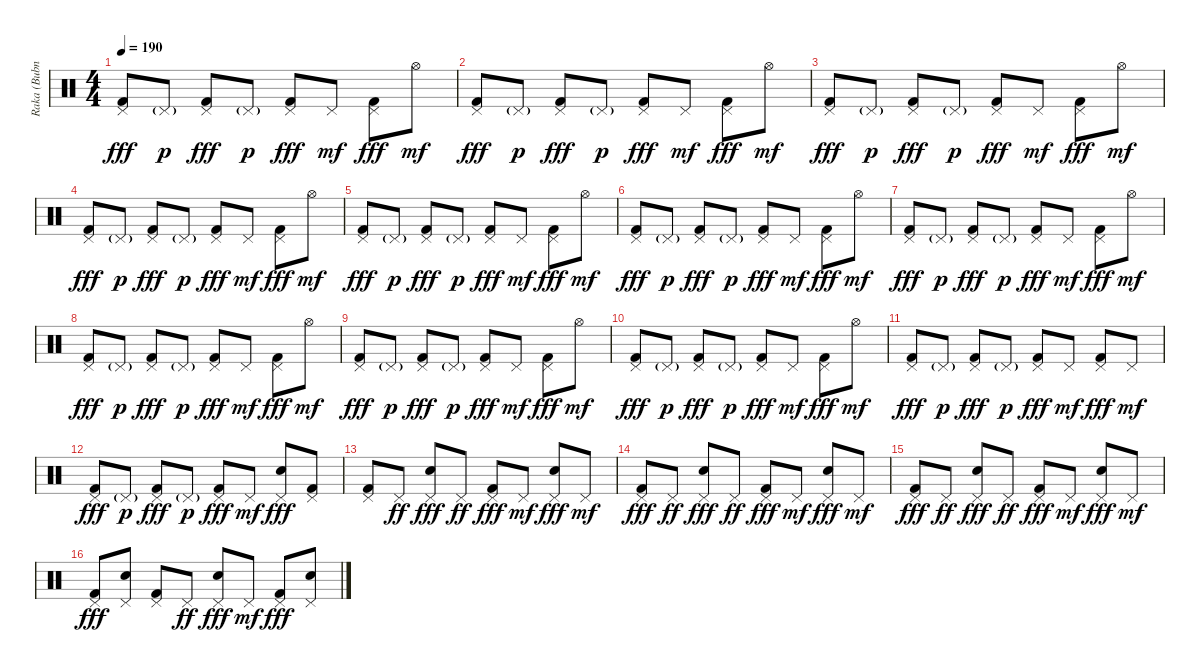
\track ("Raka (Bubnjevi)" "Raka (Bubn") {instrument percussion}
\staff {score}
\articulation defaults
\ts (4 4)
\tempo 190
\clef neutral
\ks c
("Pedal Hi-Hat (hit)" "Kick (hit) 2").8{dy fff} "Pedal Hi-Hat (hit)"{g}.8{dy p} ("Pedal Hi-Hat (hit)" "Kick (hit) 2").8{dy fff} "Pedal Hi-Hat (hit)"{g}.8{dy p} ("Pedal Hi-Hat (hit)" "Kick (hit) 2").8{dy fff} "Pedal Hi-Hat (hit)".8{dy mf} ("Pedal Hi-Hat (hit)" "Kick (hit) 2").8{dy fff} "Hi-Hat (open)".8{dy mf} |
("Pedal Hi-Hat (hit)" "Kick (hit) 2").8{dy fff} "Pedal Hi-Hat (hit)"{g}.8{dy p} ("Pedal Hi-Hat (hit)" "Kick (hit) 2").8{dy fff} "Pedal Hi-Hat (hit)"{g}.8{dy p} ("Pedal Hi-Hat (hit)" "Kick (hit) 2").8{dy fff} "Pedal Hi-Hat (hit)".8{dy mf} ("Pedal Hi-Hat (hit)" "Kick (hit) 2").8{dy fff} "Hi-Hat (open)".8{dy mf} |
("Pedal Hi-Hat (hit)" "Kick (hit) 2").8{dy fff} "Pedal Hi-Hat (hit)"{g}.8{dy p} ("Pedal Hi-Hat (hit)" "Kick (hit) 2").8{dy fff} "Pedal Hi-Hat (hit)"{g}.8{dy p} ("Pedal Hi-Hat (hit)" "Kick (hit) 2").8{dy fff} "Pedal Hi-Hat (hit)".8{dy mf} ("Pedal Hi-Hat (hit)" "Kick (hit) 2").8{dy fff} "Hi-Hat (open)".8{dy mf} |
("Pedal Hi-Hat (hit)" "Kick (hit) 2").8{dy fff} "Pedal Hi-Hat (hit)"{g}.8{dy p} ("Pedal Hi-Hat (hit)" "Kick (hit) 2").8{dy fff} "Pedal Hi-Hat (hit)"{g}.8{dy p} ("Pedal Hi-Hat (hit)" "Kick (hit) 2").8{dy fff} "Pedal Hi-Hat (hit)".8{dy mf} ("Pedal Hi-Hat (hit)" "Kick (hit) 2").8{dy fff} "Hi-Hat (open)".8{dy mf} |
("Pedal Hi-Hat (hit)" "Kick (hit) 2").8{dy fff} "Pedal Hi-Hat (hit)"{g}.8{dy p} ("Pedal Hi-Hat (hit)" "Kick (hit) 2").8{dy fff} "Pedal Hi-Hat (hit)"{g}.8{dy p} ("Pedal Hi-Hat (hit)" "Kick (hit) 2").8{dy fff} "Pedal Hi-Hat (hit)".8{dy mf} ("Pedal Hi-Hat (hit)" "Kick (hit) 2").8{dy fff} "Hi-Hat (open)".8{dy mf} |
("Pedal Hi-Hat (hit)" "Kick (hit) 2").8{dy fff} "Pedal Hi-Hat (hit)"{g}.8{dy p} ("Pedal Hi-Hat (hit)" "Kick (hit) 2").8{dy fff} "Pedal Hi-Hat (hit)"{g}.8{dy p} ("Pedal Hi-Hat (hit)" "Kick (hit) 2").8{dy fff} "Pedal Hi-Hat (hit)".8{dy mf} ("Pedal Hi-Hat (hit)" "Kick (hit) 2").8{dy fff} "Hi-Hat (open)".8{dy mf} |
("Pedal Hi-Hat (hit)" "Kick (hit) 2").8{dy fff} "Pedal Hi-Hat (hit)"{g}.8{dy p} ("Pedal Hi-Hat (hit)" "Kick (hit) 2").8{dy fff} "Pedal Hi-Hat (hit)"{g}.8{dy p} ("Pedal Hi-Hat (hit)" "Kick (hit) 2").8{dy fff} "Pedal Hi-Hat (hit)".8{dy mf} ("Pedal Hi-Hat (hit)" "Kick (hit) 2").8{dy fff} "Hi-Hat (open)".8{dy mf} |
("Pedal Hi-Hat (hit)" "Kick (hit) 2").8{dy fff} "Pedal Hi-Hat (hit)"{g}.8{dy p} ("Pedal Hi-Hat (hit)" "Kick (hit) 2").8{dy fff} "Pedal Hi-Hat (hit)"{g}.8{dy p} ("Pedal Hi-Hat (hit)" "Kick (hit) 2").8{dy fff} "Pedal Hi-Hat (hit)".8{dy mf} ("Pedal Hi-Hat (hit)" "Kick (hit) 2").8{dy fff} "Hi-Hat (open)".8{dy mf} |
("Pedal Hi-Hat (hit)" "Kick (hit) 2").8{dy fff} "Pedal Hi-Hat (hit)"{g}.8{dy p} ("Pedal Hi-Hat (hit)" "Kick (hit) 2").8{dy fff} "Pedal Hi-Hat (hit)"{g}.8{dy p} ("Pedal Hi-Hat (hit)" "Kick (hit) 2").8{dy fff} "Pedal Hi-Hat (hit)".8{dy mf} ("Pedal Hi-Hat (hit)" "Kick (hit) 2").8{dy fff} "Hi-Hat (open)".8{dy mf} |
("Pedal Hi-Hat (hit)" "Kick (hit) 2").8{dy fff} "Pedal Hi-Hat (hit)"{g}.8{dy p} ("Pedal Hi-Hat (hit)" "Kick (hit) 2").8{dy fff} "Pedal Hi-Hat (hit)"{g}.8{dy p} ("Pedal Hi-Hat (hit)" "Kick (hit) 2").8{dy fff} "Pedal Hi-Hat (hit)".8{dy mf} ("Pedal Hi-Hat (hit)" "Kick (hit) 2").8{dy fff} "Hi-Hat (open)".8{dy mf} |
("Pedal Hi-Hat (hit)" "Kick (hit) 2").8{dy fff} "Pedal Hi-Hat (hit)"{g}.8{dy p} ("Pedal Hi-Hat (hit)" "Kick (hit) 2").8{dy fff} "Pedal Hi-Hat (hit)"{g}.8{dy p} ("Pedal Hi-Hat (hit)" "Kick (hit) 2").8{dy fff} "Pedal Hi-Hat (hit)".8{dy mf} ("Pedal Hi-Hat (hit)" "Kick (hit) 2").8{dy fff} "Pedal Hi-Hat (hit)".8{dy mf} |
("Pedal Hi-Hat (hit)" "Kick (hit) 2").8{dy fff} "Pedal Hi-Hat (hit)"{g}.8{dy p} ("Pedal Hi-Hat (hit)" "Kick (hit) 2").8{dy fff} "Pedal Hi-Hat (hit)"{g}.8{dy p} ("Pedal Hi-Hat (hit)" "Kick (hit) 2").8{dy fff} "Pedal Hi-Hat (hit)".8{dy mf} ("Pedal Hi-Hat (hit)" "Snare (hit) 2").8{dy fff} ("Pedal Hi-Hat (hit)" "Kick (hit) 2").8 |
("Pedal Hi-Hat (hit)" "Kick (hit) 2").8 "Pedal Hi-Hat (hit)".8{dy ff} ("Pedal Hi-Hat (hit)" "Snare (hit) 2").8{dy fff} "Pedal Hi-Hat (hit)".8{dy ff} ("Pedal Hi-Hat (hit)" "Kick (hit) 2").8{dy fff} "Pedal Hi-Hat (hit)".8{dy mf} ("Pedal Hi-Hat (hit)" "Snare (hit) 2").8{dy fff} "Pedal Hi-Hat (hit)".8{dy mf} |
("Pedal Hi-Hat (hit)" "Kick (hit) 2").8{dy fff} "Pedal Hi-Hat (hit)".8{dy ff} ("Pedal Hi-Hat (hit)" "Snare (hit) 2").8{dy fff} "Pedal Hi-Hat (hit)".8{dy ff} ("Pedal Hi-Hat (hit)" "Kick (hit) 2").8{dy fff} "Pedal Hi-Hat (hit)".8{dy mf} ("Pedal Hi-Hat (hit)" "Snare (hit) 2").8{dy fff} "Pedal Hi-Hat (hit)".8{dy mf} |
("Pedal Hi-Hat (hit)" "Kick (hit) 2").8{dy fff} "Pedal Hi-Hat (hit)".8{dy ff} ("Pedal Hi-Hat (hit)" "Snare (hit) 2").8{dy fff} "Pedal Hi-Hat (hit)".8{dy ff} ("Pedal Hi-Hat (hit)" "Kick (hit) 2").8{dy fff} "Pedal Hi-Hat (hit)".8{dy mf} ("Pedal Hi-Hat (hit)" "Snare (hit) 2").8{dy fff} "Pedal Hi-Hat (hit)".8{dy mf} |
("Pedal Hi-Hat (hit)" "Kick (hit) 2").8{dy fff} ("Pedal Hi-Hat (hit)" "Snare (hit) 2").8 ("Pedal Hi-Hat (hit)" "Kick (hit) 2").8 "Pedal Hi-Hat (hit)".8{dy ff} ("Pedal Hi-Hat (hit)" "Snare (hit) 2").8{dy fff} "Pedal Hi-Hat (hit)".8{dy mf} ("Pedal Hi-Hat (hit)" "Kick (hit) 2").8{dy fff} ("Pedal Hi-Hat (hit)" "Snare (hit) 2").8
